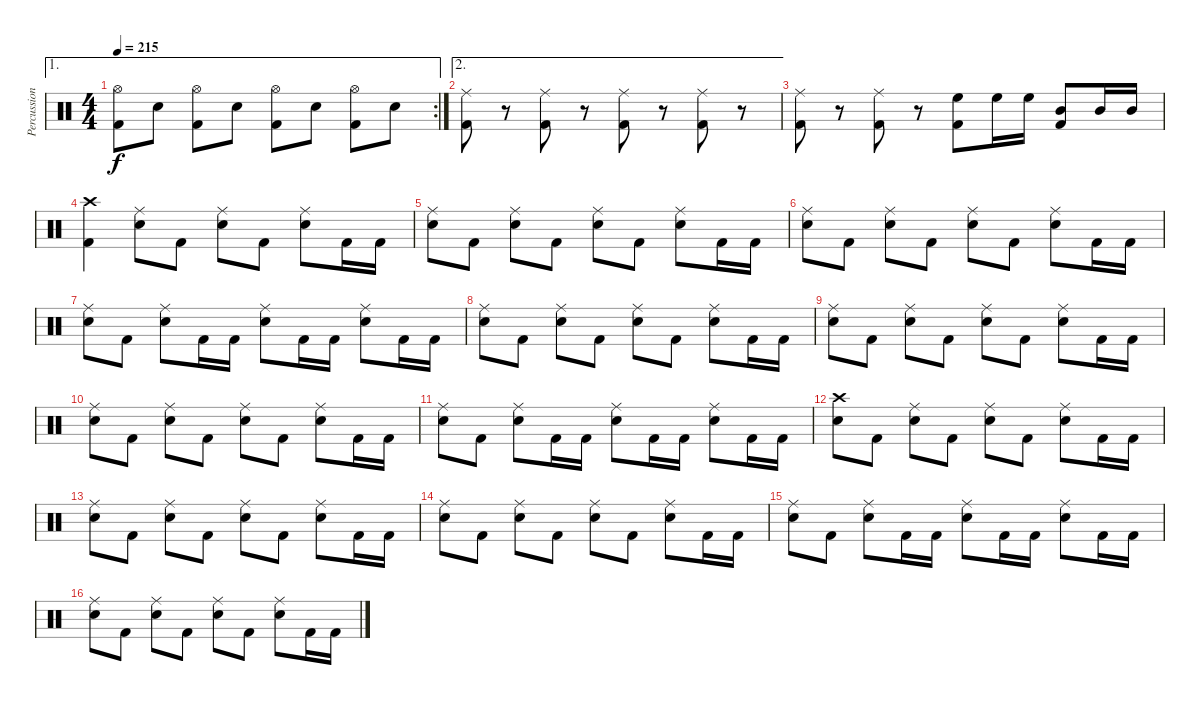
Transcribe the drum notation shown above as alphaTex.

\track ("Percussion" "Percussion") {instrument percussion}
\staff {score}
\articulation defaults
\ae 1
\rc 2
\ts (4 4)
\tempo 215
\clef neutral
\ks aminor
("Hi-Hat (open)" "Kick (hit) 2").8{dy f} "Snare (hit) 2".8 ("Hi-Hat (open)" "Kick (hit) 2").8 "Snare (hit) 2".8 ("Hi-Hat (open)" "Kick (hit) 2").8 "Snare (hit) 2".8 ("Hi-Hat (open)" "Kick (hit) 2").8 "Snare (hit) 2".8 |
\ae 2
("Ride (middle)" "Kick (hit) 2").8 r.8 ("Ride (middle)" "Kick (hit) 2").8 r.8 ("Ride (middle)" "Kick (hit) 2").8 r.8 ("Ride (middle)" "Kick (hit) 2").8 r.8 |
("Ride (middle)" "Kick (hit) 2").8 r.8 ("Ride (middle)" "Kick (hit) 2").8 r.8 ("High Floor Tom (hit)" "Kick (hit) 2").8 "High Floor Tom (hit)".16 "High Floor Tom (hit)".16 ("Mid Tom (hit)" "Kick (hit) 2").8 "Mid Tom (hit)".16 "Mid Tom (hit)".16 |
("Crash high (hit)" "Kick (hit) 2").4 ("Ride (middle)" "Snare (hit) 2").8 "Kick (hit) 2".8 ("Ride (middle)" "Snare (hit) 2").8 "Kick (hit) 2".8 ("Ride (middle)" "Snare (hit) 2").8 "Kick (hit) 2".16 "Kick (hit) 2".16 |
("Ride (middle)" "Snare (hit) 2").8 "Kick (hit) 2".8 ("Ride (middle)" "Snare (hit) 2").8 "Kick (hit) 2".8 ("Ride (middle)" "Snare (hit) 2").8 "Kick (hit) 2".8 ("Ride (middle)" "Snare (hit) 2").8 "Kick (hit) 2".16 "Kick (hit) 2".16 |
("Ride (middle)" "Snare (hit) 2").8 "Kick (hit) 2".8 ("Ride (middle)" "Snare (hit) 2").8 "Kick (hit) 2".8 ("Ride (middle)" "Snare (hit) 2").8 "Kick (hit) 2".8 ("Ride (middle)" "Snare (hit) 2").8 "Kick (hit) 2".16 "Kick (hit) 2".16 |
("Ride (middle)" "Snare (hit) 2").8 "Kick (hit) 2".8 ("Ride (middle)" "Snare (hit) 2").8 "Kick (hit) 2".16 "Kick (hit) 2".16 ("Ride (middle)" "Snare (hit) 2").8 "Kick (hit) 2".16 "Kick (hit) 2".16 ("Ride (middle)" "Snare (hit) 2").8 "Kick (hit) 2".16 "Kick (hit) 2".16 |
("Ride (middle)" "Snare (hit) 2").8 "Kick (hit) 2".8 ("Ride (middle)" "Snare (hit) 2").8 "Kick (hit) 2".8 ("Ride (middle)" "Snare (hit) 2").8 "Kick (hit) 2".8 ("Ride (middle)" "Snare (hit) 2").8 "Kick (hit) 2".16 "Kick (hit) 2".16 |
("Ride (middle)" "Snare (hit) 2").8 "Kick (hit) 2".8 ("Ride (middle)" "Snare (hit) 2").8 "Kick (hit) 2".8 ("Ride (middle)" "Snare (hit) 2").8 "Kick (hit) 2".8 ("Ride (middle)" "Snare (hit) 2").8 "Kick (hit) 2".16 "Kick (hit) 2".16 |
("Ride (middle)" "Snare (hit) 2").8 "Kick (hit) 2".8 ("Ride (middle)" "Snare (hit) 2").8 "Kick (hit) 2".8 ("Ride (middle)" "Snare (hit) 2").8 "Kick (hit) 2".8 ("Ride (middle)" "Snare (hit) 2").8 "Kick (hit) 2".16 "Kick (hit) 2".16 |
("Ride (middle)" "Snare (hit) 2").8 "Kick (hit) 2".8 ("Ride (middle)" "Snare (hit) 2").8 "Kick (hit) 2".16 "Kick (hit) 2".16 ("Ride (middle)" "Snare (hit) 2").8 "Kick (hit) 2".16 "Kick (hit) 2".16 ("Ride (middle)" "Snare (hit) 2").8 "Kick (hit) 2".16 "Kick (hit) 2".16 |
("Crash high (hit)" "Snare (hit) 2").8 "Kick (hit) 2".8 ("Ride (middle)" "Snare (hit) 2").8 "Kick (hit) 2".8 ("Ride (middle)" "Snare (hit) 2").8 "Kick (hit) 2".8 ("Ride (middle)" "Snare (hit) 2").8 "Kick (hit) 2".16 "Kick (hit) 2".16 |
("Ride (middle)" "Snare (hit) 2").8 "Kick (hit) 2".8 ("Ride (middle)" "Snare (hit) 2").8 "Kick (hit) 2".8 ("Ride (middle)" "Snare (hit) 2").8 "Kick (hit) 2".8 ("Ride (middle)" "Snare (hit) 2").8 "Kick (hit) 2".16 "Kick (hit) 2".16 |
("Ride (middle)" "Snare (hit) 2").8 "Kick (hit) 2".8 ("Ride (middle)" "Snare (hit) 2").8 "Kick (hit) 2".8 ("Ride (middle)" "Snare (hit) 2").8 "Kick (hit) 2".8 ("Ride (middle)" "Snare (hit) 2").8 "Kick (hit) 2".16 "Kick (hit) 2".16 |
("Ride (middle)" "Snare (hit) 2").8 "Kick (hit) 2".8 ("Ride (middle)" "Snare (hit) 2").8 "Kick (hit) 2".16 "Kick (hit) 2".16 ("Ride (middle)" "Snare (hit) 2").8 "Kick (hit) 2".16 "Kick (hit) 2".16 ("Ride (middle)" "Snare (hit) 2").8 "Kick (hit) 2".16 "Kick (hit) 2".16 |
("Ride (middle)" "Snare (hit) 2").8 "Kick (hit) 2".8 ("Ride (middle)" "Snare (hit) 2").8 "Kick (hit) 2".8 ("Ride (middle)" "Snare (hit) 2").8 "Kick (hit) 2".8 ("Ride (middle)" "Snare (hit) 2").8 "Kick (hit) 2".16 "Kick (hit) 2".16
